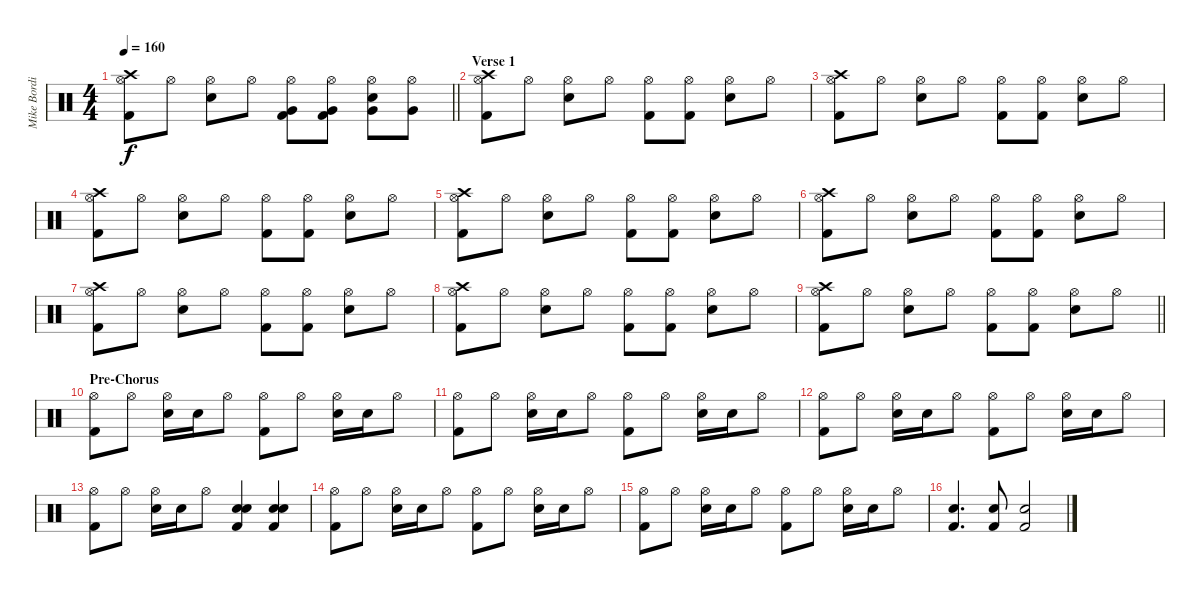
\track ("Mike Bordin - Drums" "Mike Bordi") {instrument percussion}
\staff {score}
\articulation defaults
\ts (4 4)
\tempo 160
\clef neutral
\barLineRight lightlight
\ks c
("Crash high (hit)" "Hi-Hat (open)" "Kick (hit) 2").8{dy f} "Hi-Hat (open)".8 ("Hi-Hat (open)" "Snare (hit) 2").8 "Hi-Hat (open)".8 ("Hi-Hat (open)" "Very Low Tom (hit)" "Kick (hit) 2").8 ("Hi-Hat (open)" "Very Low Tom (hit)" "Kick (hit) 2").8 ("Hi-Hat (open)" "Snare (hit) 2" "Very Low Tom (hit)").8 ("Hi-Hat (open)" "Very Low Tom (hit)").8 |
\section ("" "Verse 1")
("Crash high (hit)" "Hi-Hat (open)" "Kick (hit) 2").8 "Hi-Hat (open)".8 ("Hi-Hat (open)" "Snare (hit) 2").8 "Hi-Hat (open)".8 ("Hi-Hat (open)" "Kick (hit) 2").8 ("Hi-Hat (open)" "Kick (hit) 2").8 ("Hi-Hat (open)" "Snare (hit) 2").8 "Hi-Hat (open)".8 |
("Crash high (hit)" "Hi-Hat (open)" "Kick (hit) 2").8 "Hi-Hat (open)".8 ("Hi-Hat (open)" "Snare (hit) 2").8 "Hi-Hat (open)".8 ("Hi-Hat (open)" "Kick (hit) 2").8 ("Hi-Hat (open)" "Kick (hit) 2").8 ("Hi-Hat (open)" "Snare (hit) 2").8 "Hi-Hat (open)".8 |
("Crash high (hit)" "Hi-Hat (open)" "Kick (hit) 2").8 "Hi-Hat (open)".8 ("Hi-Hat (open)" "Snare (hit) 2").8 "Hi-Hat (open)".8 ("Hi-Hat (open)" "Kick (hit) 2").8 ("Hi-Hat (open)" "Kick (hit) 2").8 ("Hi-Hat (open)" "Snare (hit) 2").8 "Hi-Hat (open)".8 |
("Crash high (hit)" "Hi-Hat (open)" "Kick (hit) 2").8 "Hi-Hat (open)".8 ("Hi-Hat (open)" "Snare (hit) 2").8 "Hi-Hat (open)".8 ("Hi-Hat (open)" "Kick (hit) 2").8 ("Hi-Hat (open)" "Kick (hit) 2").8 ("Hi-Hat (open)" "Snare (hit) 2").8 "Hi-Hat (open)".8 |
("Crash high (hit)" "Hi-Hat (open)" "Kick (hit) 2").8 "Hi-Hat (open)".8 ("Hi-Hat (open)" "Snare (hit) 2").8 "Hi-Hat (open)".8 ("Hi-Hat (open)" "Kick (hit) 2").8 ("Hi-Hat (open)" "Kick (hit) 2").8 ("Hi-Hat (open)" "Snare (hit) 2").8 "Hi-Hat (open)".8 |
("Crash high (hit)" "Hi-Hat (open)" "Kick (hit) 2").8 "Hi-Hat (open)".8 ("Hi-Hat (open)" "Snare (hit) 2").8 "Hi-Hat (open)".8 ("Hi-Hat (open)" "Kick (hit) 2").8 ("Hi-Hat (open)" "Kick (hit) 2").8 ("Hi-Hat (open)" "Snare (hit) 2").8 "Hi-Hat (open)".8 |
("Crash high (hit)" "Hi-Hat (open)" "Kick (hit) 2").8 "Hi-Hat (open)".8 ("Hi-Hat (open)" "Snare (hit) 2").8 "Hi-Hat (open)".8 ("Hi-Hat (open)" "Kick (hit) 2").8 ("Hi-Hat (open)" "Kick (hit) 2").8 ("Hi-Hat (open)" "Snare (hit) 2").8 "Hi-Hat (open)".8 |
\barLineRight lightlight
("Crash high (hit)" "Hi-Hat (open)" "Kick (hit) 2").8 "Hi-Hat (open)".8 ("Hi-Hat (open)" "Snare (hit) 2").8 "Hi-Hat (open)".8 ("Hi-Hat (open)" "Kick (hit) 2").8 ("Hi-Hat (open)" "Kick (hit) 2").8 ("Hi-Hat (open)" "Snare (hit) 2").8 "Hi-Hat (open)".8 |
\section ("" "Pre-Chorus")
("Hi-Hat (open)" "Kick (hit) 2").8 "Hi-Hat (open)".8 ("Hi-Hat (open)" "Snare (hit) 2").16 "Snare (hit) 2".16 "Hi-Hat (open)".8 ("Hi-Hat (open)" "Kick (hit) 2").8 "Hi-Hat (open)".8 ("Hi-Hat (open)" "Snare (hit) 2").16 "Snare (hit) 2".16 "Hi-Hat (open)".8 |
("Hi-Hat (open)" "Kick (hit) 2").8 "Hi-Hat (open)".8 ("Hi-Hat (open)" "Snare (hit) 2").16 "Snare (hit) 2".16 "Hi-Hat (open)".8 ("Hi-Hat (open)" "Kick (hit) 2").8 "Hi-Hat (open)".8 ("Hi-Hat (open)" "Snare (hit) 2").16 "Snare (hit) 2".16 "Hi-Hat (open)".8 |
("Hi-Hat (open)" "Kick (hit) 2").8 "Hi-Hat (open)".8 ("Hi-Hat (open)" "Snare (hit) 2").16 "Snare (hit) 2".16 "Hi-Hat (open)".8 ("Hi-Hat (open)" "Kick (hit) 2").8 "Hi-Hat (open)".8 ("Hi-Hat (open)" "Snare (hit) 2").16 "Snare (hit) 2".16 "Hi-Hat (open)".8 |
("Hi-Hat (open)" "Kick (hit) 2").8 "Hi-Hat (open)".8 ("Hi-Hat (open)" "Snare (hit) 2").16 "Snare (hit) 2".16 "Hi-Hat (open)".8 ("Snare (hit) 2" "Snare (hit) 2" "Kick (hit) 2").4{bd 30} ("Snare (hit) 2" "Snare (hit) 2" "Kick (hit) 2").4{bd 30} |
("Hi-Hat (open)" "Kick (hit) 2").8 "Hi-Hat (open)".8 ("Hi-Hat (open)" "Snare (hit) 2").16 "Snare (hit) 2".16 "Hi-Hat (open)".8 ("Hi-Hat (open)" "Kick (hit) 2").8 "Hi-Hat (open)".8 ("Hi-Hat (open)" "Snare (hit) 2").16 "Snare (hit) 2".16 "Hi-Hat (open)".8 |
("Hi-Hat (open)" "Kick (hit) 2").8 "Hi-Hat (open)".8 ("Hi-Hat (open)" "Snare (hit) 2").16 "Snare (hit) 2".16 "Hi-Hat (open)".8 ("Hi-Hat (open)" "Kick (hit) 2").8 "Hi-Hat (open)".8 ("Hi-Hat (open)" "Snare (hit) 2").16 "Snare (hit) 2".16 "Hi-Hat (open)".8 |
("Snare (hit) 2" "Kick (hit) 2").4{d} ("Snare (hit) 2" "Kick (hit) 2").8 ("Snare (hit) 2" "Kick (hit) 2").2
